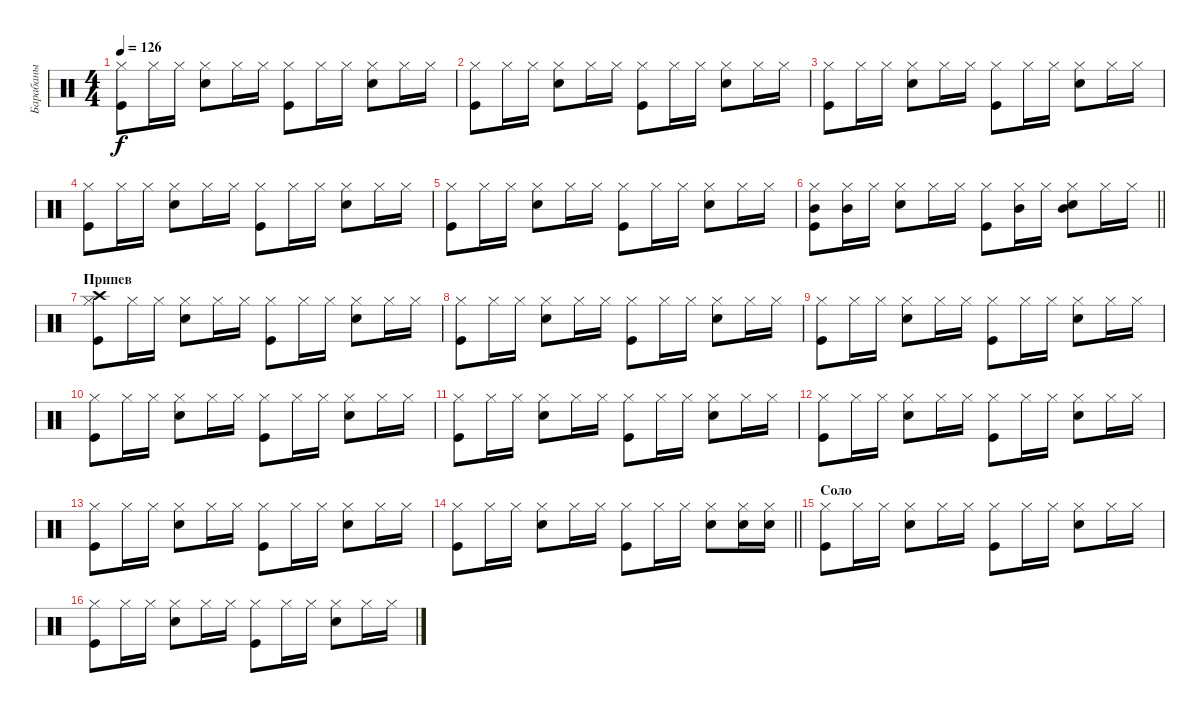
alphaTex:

\track ("Барабаны" "Барабаны") {instrument percussion}
\staff {score}
\articulation defaults
\ts (4 4)
\tempo 126
\clef neutral
\ks c
("Kick (hit)" "Hi-Hat (closed)").8{dy f} "Hi-Hat (closed)".16 "Hi-Hat (closed)".16 ("Snare (hit) 2" "Hi-Hat (closed)").8 "Hi-Hat (closed)".16 "Hi-Hat (closed)".16 ("Kick (hit)" "Hi-Hat (closed)").8 "Hi-Hat (closed)".16 "Hi-Hat (closed)".16 ("Snare (hit) 2" "Hi-Hat (closed)").8 "Hi-Hat (closed)".16 "Hi-Hat (closed)".16 |
("Kick (hit)" "Hi-Hat (closed)").8 "Hi-Hat (closed)".16 "Hi-Hat (closed)".16 ("Snare (hit) 2" "Hi-Hat (closed)").8 "Hi-Hat (closed)".16 "Hi-Hat (closed)".16 ("Kick (hit)" "Hi-Hat (closed)").8 "Hi-Hat (closed)".16 "Hi-Hat (closed)".16 ("Snare (hit) 2" "Hi-Hat (closed)").8 "Hi-Hat (closed)".16 "Hi-Hat (closed)".16 |
("Kick (hit)" "Hi-Hat (closed)").8 "Hi-Hat (closed)".16 "Hi-Hat (closed)".16 ("Snare (hit) 2" "Hi-Hat (closed)").8 "Hi-Hat (closed)".16 "Hi-Hat (closed)".16 ("Kick (hit)" "Hi-Hat (closed)").8 "Hi-Hat (closed)".16 "Hi-Hat (closed)".16 ("Snare (hit) 2" "Hi-Hat (closed)").8 "Hi-Hat (closed)".16 "Hi-Hat (closed)".16 |
("Kick (hit)" "Hi-Hat (closed)").8 "Hi-Hat (closed)".16 "Hi-Hat (closed)".16 ("Snare (hit) 2" "Hi-Hat (closed)").8 "Hi-Hat (closed)".16 "Hi-Hat (closed)".16 ("Kick (hit)" "Hi-Hat (closed)").8 "Hi-Hat (closed)".16 "Hi-Hat (closed)".16 ("Snare (hit) 2" "Hi-Hat (closed)").8 "Hi-Hat (closed)".16 "Hi-Hat (closed)".16 |
("Kick (hit)" "Hi-Hat (closed)").8 "Hi-Hat (closed)".16 "Hi-Hat (closed)".16 ("Snare (hit) 2" "Hi-Hat (closed)").8 "Hi-Hat (closed)".16 "Hi-Hat (closed)".16 ("Kick (hit)" "Hi-Hat (closed)").8 "Hi-Hat (closed)".16 "Hi-Hat (closed)".16 ("Snare (hit) 2" "Hi-Hat (closed)").8 "Hi-Hat (closed)".16 "Hi-Hat (closed)".16 |
\barLineRight lightlight
("Kick (hit)" "Hi-Hat (closed)" "Mid Tom (hit)").8 ("Hi-Hat (closed)" "Mid Tom (hit)").16 "Hi-Hat (closed)".16 ("Snare (hit) 2" "Hi-Hat (closed)").8 "Hi-Hat (closed)".16 "Hi-Hat (closed)".16 ("Kick (hit)" "Hi-Hat (closed)").8 ("Hi-Hat (closed)" "Mid Tom (hit)").16 "Hi-Hat (closed)".16 ("Snare (hit) 2" "Hi-Hat (closed)" "Mid Tom (hit)").8 "Hi-Hat (closed)".16 "Hi-Hat (closed)".16 |
\section ("" "Припев")
("Kick (hit)" "Hi-Hat (closed)" "Crash high (hit)").8 "Hi-Hat (closed)".16 "Hi-Hat (closed)".16 ("Snare (hit) 2" "Hi-Hat (closed)").8 "Hi-Hat (closed)".16 "Hi-Hat (closed)".16 ("Kick (hit)" "Hi-Hat (closed)").8 "Hi-Hat (closed)".16 "Hi-Hat (closed)".16 ("Snare (hit) 2" "Hi-Hat (closed)").8 "Hi-Hat (closed)".16 "Hi-Hat (closed)".16 |
("Kick (hit)" "Hi-Hat (closed)").8 "Hi-Hat (closed)".16 "Hi-Hat (closed)".16 ("Snare (hit) 2" "Hi-Hat (closed)").8 "Hi-Hat (closed)".16 "Hi-Hat (closed)".16 ("Kick (hit)" "Hi-Hat (closed)").8 "Hi-Hat (closed)".16 "Hi-Hat (closed)".16 ("Snare (hit) 2" "Hi-Hat (closed)").8 "Hi-Hat (closed)".16 "Hi-Hat (closed)".16 |
("Kick (hit)" "Hi-Hat (closed)").8 "Hi-Hat (closed)".16 "Hi-Hat (closed)".16 ("Snare (hit) 2" "Hi-Hat (closed)").8 "Hi-Hat (closed)".16 "Hi-Hat (closed)".16 ("Kick (hit)" "Hi-Hat (closed)").8 "Hi-Hat (closed)".16 "Hi-Hat (closed)".16 ("Snare (hit) 2" "Hi-Hat (closed)").8 "Hi-Hat (closed)".16 "Hi-Hat (closed)".16 |
("Kick (hit)" "Hi-Hat (closed)").8 "Hi-Hat (closed)".16 "Hi-Hat (closed)".16 ("Snare (hit) 2" "Hi-Hat (closed)").8 "Hi-Hat (closed)".16 "Hi-Hat (closed)".16 ("Kick (hit)" "Hi-Hat (closed)").8 "Hi-Hat (closed)".16 "Hi-Hat (closed)".16 ("Snare (hit) 2" "Hi-Hat (closed)").8 "Hi-Hat (closed)".16 "Hi-Hat (closed)".16 |
("Kick (hit)" "Hi-Hat (closed)").8 "Hi-Hat (closed)".16 "Hi-Hat (closed)".16 ("Snare (hit) 2" "Hi-Hat (closed)").8 "Hi-Hat (closed)".16 "Hi-Hat (closed)".16 ("Kick (hit)" "Hi-Hat (closed)").8 "Hi-Hat (closed)".16 "Hi-Hat (closed)".16 ("Snare (hit) 2" "Hi-Hat (closed)").8 "Hi-Hat (closed)".16 "Hi-Hat (closed)".16 |
("Kick (hit)" "Hi-Hat (closed)").8 "Hi-Hat (closed)".16 "Hi-Hat (closed)".16 ("Snare (hit) 2" "Hi-Hat (closed)").8 "Hi-Hat (closed)".16 "Hi-Hat (closed)".16 ("Kick (hit)" "Hi-Hat (closed)").8 "Hi-Hat (closed)".16 "Hi-Hat (closed)".16 ("Snare (hit) 2" "Hi-Hat (closed)").8 "Hi-Hat (closed)".16 "Hi-Hat (closed)".16 |
("Kick (hit)" "Hi-Hat (closed)").8 "Hi-Hat (closed)".16 "Hi-Hat (closed)".16 ("Snare (hit) 2" "Hi-Hat (closed)").8 "Hi-Hat (closed)".16 "Hi-Hat (closed)".16 ("Kick (hit)" "Hi-Hat (closed)").8 "Hi-Hat (closed)".16 "Hi-Hat (closed)".16 ("Snare (hit) 2" "Hi-Hat (closed)").8 "Hi-Hat (closed)".16 "Hi-Hat (closed)".16 |
\barLineRight lightlight
("Kick (hit)" "Hi-Hat (closed)").8 "Hi-Hat (closed)".16 "Hi-Hat (closed)".16 ("Snare (hit) 2" "Hi-Hat (closed)").8 "Hi-Hat (closed)".16 "Hi-Hat (closed)".16 ("Kick (hit)" "Hi-Hat (closed)").8 "Hi-Hat (closed)".16 "Hi-Hat (closed)".16 ("Snare (hit) 2" "Hi-Hat (closed)").8 ("Snare (hit) 2" "Hi-Hat (closed)").16 ("Snare (hit) 2" "Hi-Hat (closed)").16 |
\section ("" "Соло")
("Kick (hit)" "Hi-Hat (closed)").8 "Hi-Hat (closed)".16 "Hi-Hat (closed)".16 ("Snare (hit) 2" "Hi-Hat (closed)").8 "Hi-Hat (closed)".16 "Hi-Hat (closed)".16 ("Kick (hit)" "Hi-Hat (closed)").8 "Hi-Hat (closed)".16 "Hi-Hat (closed)".16 ("Snare (hit) 2" "Hi-Hat (closed)").8 "Hi-Hat (closed)".16 "Hi-Hat (closed)".16 |
("Kick (hit)" "Hi-Hat (closed)").8 "Hi-Hat (closed)".16 "Hi-Hat (closed)".16 ("Snare (hit) 2" "Hi-Hat (closed)").8 "Hi-Hat (closed)".16 "Hi-Hat (closed)".16 ("Kick (hit)" "Hi-Hat (closed)").8 "Hi-Hat (closed)".16 "Hi-Hat (closed)".16 ("Snare (hit) 2" "Hi-Hat (closed)").8 "Hi-Hat (closed)".16 "Hi-Hat (closed)".16
